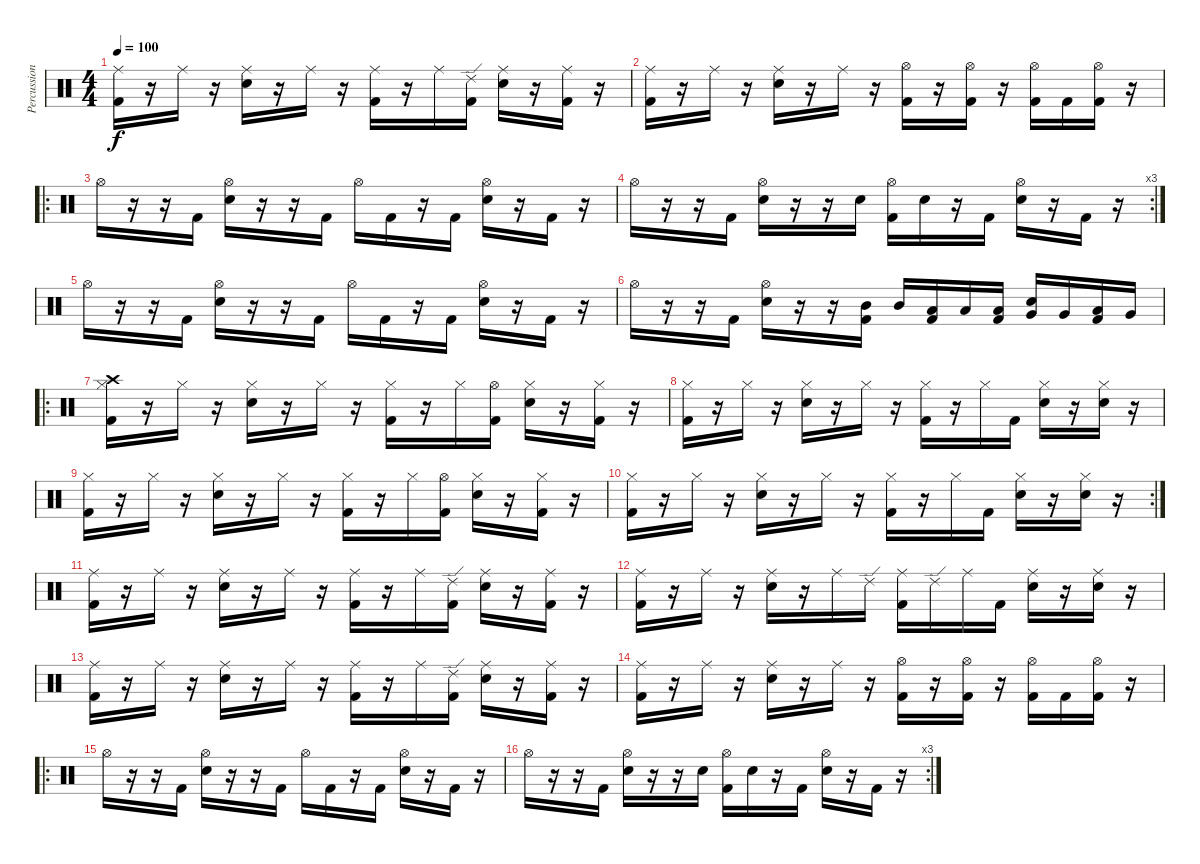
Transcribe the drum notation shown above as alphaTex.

\track ("Percussion" "Percussion") {instrument percussion}
\staff {score}
\articulation defaults
\ts (4 4)
\tempo 100
\clef neutral
\ks c
("Kick (hit) 2" "Ride (middle)").16{dy f} r.16 "Ride (middle)".16 r.16 ("Electric Snare (hit)" "Ride (middle)").16 r.16 "Ride (middle)".16 r.16 ("Kick (hit) 2" "Ride (middle)").16 r.16 "Ride (middle)".16 ("Kick (hit) 2" "Ride (edge) 2").16 ("Electric Snare (hit)" "Ride (middle)").16 r.16 ("Kick (hit) 2" "Ride (middle)").16 r.16 |
("Kick (hit) 2" "Ride (middle)").16 r.16 "Ride (middle)".16 r.16 ("Electric Snare (hit)" "Ride (middle)").16 r.16 "Ride (middle)".16 r.16 ("Kick (hit) 2" "Hi-Hat (open)").16 r.16 ("Kick (hit) 2" "Hi-Hat (open)").16 r.16 ("Kick (hit) 2" "Hi-Hat (open)").16 "Kick (hit) 2".16 ("Kick (hit) 2" "Hi-Hat (open)").16 r.16 |
\ro "Hi-Hat (open)".16
r.16 r.16 "Kick (hit) 2".16 ("Hi-Hat (open)" "Electric Snare (hit)").16 r.16 r.16 "Kick (hit) 2".16 "Hi-Hat (open)".16 "Kick (hit) 2".16 r.16 "Kick (hit) 2".16 ("Hi-Hat (open)" "Electric Snare (hit)").16 r.16 "Kick (hit) 2".16 r.16 |
\rc 3 "Hi-Hat (open)".16
r.16 r.16 "Kick (hit) 2".16 ("Hi-Hat (open)" "Electric Snare (hit)").16 r.16 r.16 "Electric Snare (hit)".16 ("Hi-Hat (open)" "Kick (hit) 2").16 "Electric Snare (hit)".16 r.16 "Kick (hit) 2".16 ("Hi-Hat (open)" "Electric Snare (hit)").16 r.16 "Kick (hit) 2".16 r.16 |
"Hi-Hat (open)".16 r.16 r.16 "Kick (hit) 2".16 ("Hi-Hat (open)" "Electric Snare (hit)").16 r.16 r.16 "Kick (hit) 2".16 "Hi-Hat (open)".16 "Kick (hit) 2".16 r.16 "Kick (hit) 2".16 ("Hi-Hat (open)" "Electric Snare (hit)").16 r.16 "Kick (hit) 2".16 r.16 |
"Hi-Hat (open)".16 r.16 r.16 "Kick (hit) 2".16 ("Hi-Hat (open)" "Electric Snare (hit)").16 r.16 r.16 ("Mid Tom (hit)" "Kick (hit) 2").16 "Mid Tom (hit)".16 ("Low Tom (hit)" "Kick (hit) 2").16 "Low Tom (hit)".16 ("Low Tom (hit)" "Kick (hit) 2").16 ("Very Low Tom (hit)" "Electric Snare (hit)").16 "Very Low Tom (hit)".16 ("Low Floor Tom (hit)" "Kick (hit) 2").16 "Very Low Tom (hit)".16 |
\ro
("Kick (hit) 2" "Hi-Hat (closed)" "Crash high (hit)").16 r.16 "Hi-Hat (closed)".16 r.16 ("Electric Snare (hit)" "Hi-Hat (closed)").16 r.16 "Hi-Hat (closed)".16 r.16 ("Kick (hit) 2" "Hi-Hat (closed)").16 r.16 "Hi-Hat (closed)".16 ("Kick (hit) 2" "Hi-Hat (open)").16 ("Electric Snare (hit)" "Hi-Hat (closed)").16 r.16 ("Kick (hit) 2" "Hi-Hat (closed)").16 r.16 |
("Kick (hit) 2" "Hi-Hat (closed)").16 r.16 "Hi-Hat (closed)".16 r.16 ("Electric Snare (hit)" "Hi-Hat (closed)").16 r.16 "Hi-Hat (closed)".16 r.16 ("Kick (hit) 2" "Hi-Hat (closed)").16 r.16 "Hi-Hat (closed)".16 "Kick (hit) 2".16 ("Electric Snare (hit)" "Hi-Hat (closed)").16 r.16 ("Electric Snare (hit)" "Hi-Hat (closed)").16 r.16 |
("Kick (hit) 2" "Hi-Hat (closed)").16 r.16 "Hi-Hat (closed)".16 r.16 ("Electric Snare (hit)" "Hi-Hat (closed)").16 r.16 "Hi-Hat (closed)".16 r.16 ("Kick (hit) 2" "Hi-Hat (closed)").16 r.16 "Hi-Hat (closed)".16 ("Kick (hit) 2" "Hi-Hat (open)").16 ("Electric Snare (hit)" "Hi-Hat (closed)").16 r.16 ("Kick (hit) 2" "Hi-Hat (closed)").16 r.16 |
\rc 2
("Kick (hit) 2" "Hi-Hat (closed)").16 r.16 "Hi-Hat (closed)".16 r.16 ("Electric Snare (hit)" "Hi-Hat (closed)").16 r.16 "Hi-Hat (closed)".16 r.16 ("Kick (hit) 2" "Hi-Hat (closed)").16 r.16 "Hi-Hat (closed)".16 "Kick (hit) 2".16 ("Electric Snare (hit)" "Hi-Hat (closed)").16 r.16 ("Electric Snare (hit)" "Hi-Hat (closed)").16 r.16 |
("Kick (hit) 2" "Ride (middle)").16 r.16 "Ride (middle)".16 r.16 ("Electric Snare (hit)" "Ride (middle)").16 r.16 "Ride (middle)".16 r.16 ("Kick (hit) 2" "Ride (middle)").16 r.16 "Ride (middle)".16 ("Kick (hit) 2" "Ride (edge) 2").16 ("Electric Snare (hit)" "Ride (middle)").16 r.16 ("Kick (hit) 2" "Ride (middle)").16 r.16 |
("Kick (hit) 2" "Ride (middle)").16 r.16 "Ride (middle)".16 r.16 ("Electric Snare (hit)" "Ride (middle)").16 r.16 "Ride (middle)".16 "Ride (edge) 2".16 ("Kick (hit) 2" "Ride (middle)").16 "Ride (edge) 2".16 "Ride (middle)".16 "Kick (hit) 2".16 ("Electric Snare (hit)" "Ride (middle)").16 r.16 ("Electric Snare (hit)" "Ride (middle)").16 r.16 |
("Kick (hit) 2" "Ride (middle)").16 r.16 "Ride (middle)".16 r.16 ("Electric Snare (hit)" "Ride (middle)").16 r.16 "Ride (middle)".16 r.16 ("Kick (hit) 2" "Ride (middle)").16 r.16 "Ride (middle)".16 ("Kick (hit) 2" "Ride (edge) 2").16 ("Electric Snare (hit)" "Ride (middle)").16 r.16 ("Kick (hit) 2" "Ride (middle)").16 r.16 |
("Kick (hit) 2" "Ride (middle)").16 r.16 "Ride (middle)".16 r.16 ("Electric Snare (hit)" "Ride (middle)").16 r.16 "Ride (middle)".16 r.16 ("Kick (hit) 2" "Hi-Hat (open)").16 r.16 ("Kick (hit) 2" "Hi-Hat (open)").16 r.16 ("Kick (hit) 2" "Hi-Hat (open)").16 "Kick (hit) 2".16 ("Kick (hit) 2" "Hi-Hat (open)").16 r.16 |
\ro "Hi-Hat (open)".16
r.16 r.16 "Kick (hit) 2".16 ("Hi-Hat (open)" "Electric Snare (hit)").16 r.16 r.16 "Kick (hit) 2".16 "Hi-Hat (open)".16 "Kick (hit) 2".16 r.16 "Kick (hit) 2".16 ("Hi-Hat (open)" "Electric Snare (hit)").16 r.16 "Kick (hit) 2".16 r.16 |
\rc 3 "Hi-Hat (open)".16
r.16 r.16 "Kick (hit) 2".16 ("Hi-Hat (open)" "Electric Snare (hit)").16 r.16 r.16 "Electric Snare (hit)".16 ("Hi-Hat (open)" "Kick (hit) 2").16 "Electric Snare (hit)".16 r.16 "Kick (hit) 2".16 ("Hi-Hat (open)" "Electric Snare (hit)").16 r.16 "Kick (hit) 2".16 r.16
